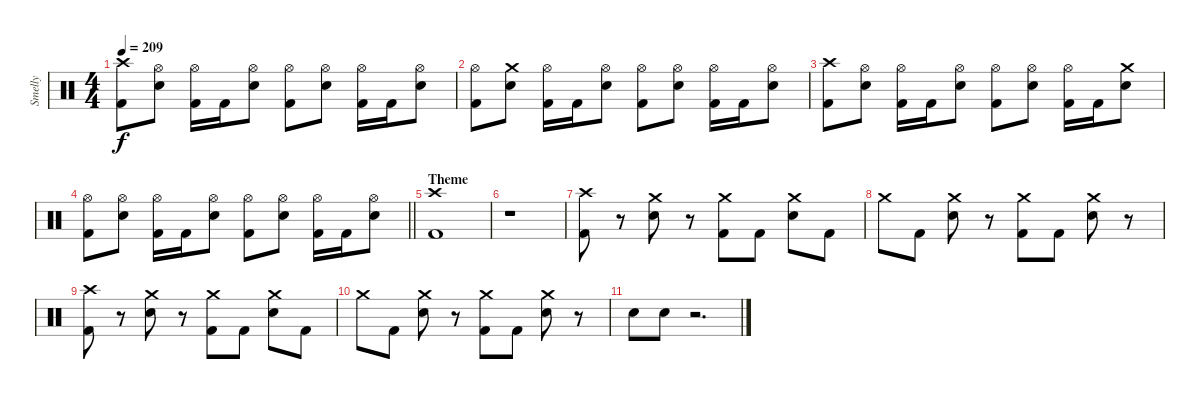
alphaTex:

\track ("Smelly" "Smelly") {instrument percussion}
\staff {score}
\articulation defaults
\ts (4 4)
\tempo 209
\clef neutral
\ks c
("Crash high (hit)" "Kick (hit) 2").8{dy f} ("Hi-Hat (open)" "Electric Snare (hit)").8 ("Hi-Hat (open)" "Kick (hit) 2").16 "Kick (hit) 2".16 ("Hi-Hat (open)" "Electric Snare (hit)").8 ("Hi-Hat (open)" "Kick (hit) 2").8 ("Hi-Hat (open)" "Electric Snare (hit)").8 ("Hi-Hat (open)" "Kick (hit) 2").16 "Kick (hit) 2".16 ("Hi-Hat (open)" "Electric Snare (hit)").8 |
("Hi-Hat (open)" "Kick (hit) 2").8 ("Crash medium (hit)" "Electric Snare (hit)").8 ("Hi-Hat (open)" "Kick (hit) 2").16 "Kick (hit) 2".16 ("Hi-Hat (open)" "Electric Snare (hit)").8 ("Hi-Hat (open)" "Kick (hit) 2").8 ("Hi-Hat (open)" "Electric Snare (hit)").8 ("Hi-Hat (open)" "Kick (hit) 2").16 "Kick (hit) 2".16 ("Hi-Hat (open)" "Electric Snare (hit)").8 |
("Crash high (hit)" "Kick (hit) 2").8 ("Hi-Hat (open)" "Electric Snare (hit)").8 ("Hi-Hat (open)" "Kick (hit) 2").16 "Kick (hit) 2".16 ("Hi-Hat (open)" "Electric Snare (hit)").8 ("Hi-Hat (open)" "Kick (hit) 2").8 ("Hi-Hat (open)" "Electric Snare (hit)").8 ("Hi-Hat (open)" "Kick (hit) 2").16 "Kick (hit) 2".16 ("Crash medium (hit)" "Electric Snare (hit)").8 |
\barLineRight lightlight
("Hi-Hat (open)" "Kick (hit) 2").8 ("Hi-Hat (open)" "Electric Snare (hit)").8 ("Hi-Hat (open)" "Kick (hit) 2").16 "Kick (hit) 2".16 ("Hi-Hat (open)" "Electric Snare (hit)").8 ("Hi-Hat (open)" "Kick (hit) 2").8 ("Hi-Hat (open)" "Electric Snare (hit)").8 ("Hi-Hat (open)" "Kick (hit) 2").16 "Kick (hit) 2".16 ("Hi-Hat (open)" "Electric Snare (hit)").8 |
\section ("" "Theme")
("Crash high (hit)" "Kick (hit) 2").1 |
r.1 |
("Crash high (hit)" "Kick (hit) 2").8 r.8 ("Crash medium (hit)" "Electric Snare (hit)").8 r.8 ("Crash medium (hit)" "Kick (hit) 2").8 "Kick (hit) 2".8 ("Crash medium (hit)" "Electric Snare (hit)").8 "Kick (hit) 2".8 |
"Crash medium (hit)".8 "Kick (hit) 2".8 ("Crash medium (hit)" "Electric Snare (hit)").8 r.8 ("Crash medium (hit)" "Kick (hit) 2").8 "Kick (hit) 2".8 ("Crash medium (hit)" "Electric Snare (hit)").8 r.8 |
("Crash high (hit)" "Kick (hit) 2").8 r.8 ("Crash medium (hit)" "Electric Snare (hit)").8 r.8 ("Crash medium (hit)" "Kick (hit) 2").8 "Kick (hit) 2".8 ("Crash medium (hit)" "Electric Snare (hit)").8 "Kick (hit) 2".8 |
"Crash medium (hit)".8 "Kick (hit) 2".8 ("Crash medium (hit)" "Electric Snare (hit)").8 r.8 ("Crash medium (hit)" "Kick (hit) 2").8 "Kick (hit) 2".8 ("Crash medium (hit)" "Electric Snare (hit)").8 r.8 |
"Electric Snare (hit)".8 "Electric Snare (hit)".8 r.2{d}
